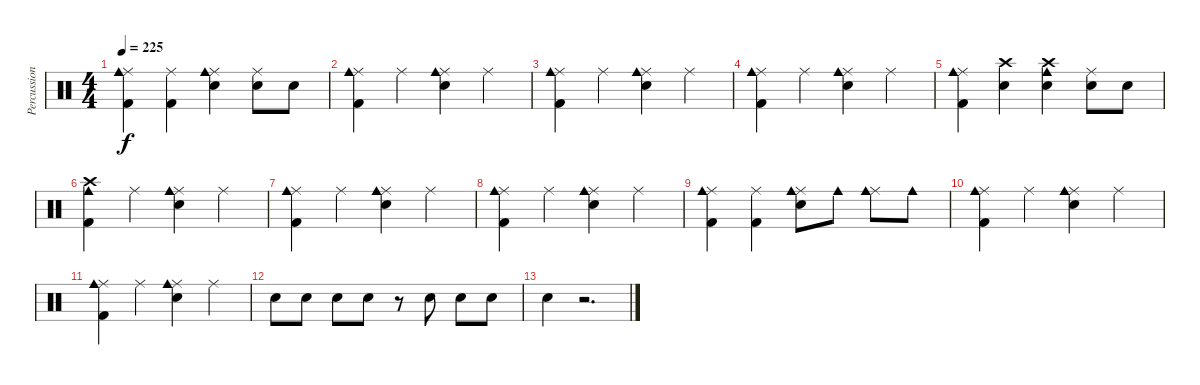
\track ("Percussion" "Percussion") {instrument percussion}
\staff {score}
\articulation defaults
\ts (4 4)
\tempo 225
\clef neutral
\ks c
("Ride (middle)" "Cowbell medium (hit)" "Kick (hit) 2").4{dy f} ("Ride (middle)" "Kick (hit) 2").4 ("Ride (middle)" "Cowbell medium (hit)" "Electric Snare (hit)").4 ("Ride (middle)" "Electric Snare (hit)").8 "Electric Snare (hit)".8 |
("Ride (middle)" "Cowbell medium (hit)" "Kick (hit) 2").4 "Ride (middle)".4 ("Ride (middle)" "Cowbell medium (hit)" "Electric Snare (hit)").4 "Ride (middle)".4 |
("Ride (middle)" "Cowbell medium (hit)" "Kick (hit) 2").4 "Ride (middle)".4 ("Ride (middle)" "Cowbell medium (hit)" "Electric Snare (hit)").4 "Ride (middle)".4 |
("Ride (middle)" "Cowbell medium (hit)" "Kick (hit) 2").4 "Ride (middle)".4 ("Ride (middle)" "Cowbell medium (hit)" "Electric Snare (hit)").4 "Ride (middle)".4 |
("Ride (middle)" "Cowbell medium (hit)" "Kick (hit) 2").4 ("Crash high (hit)" "Electric Snare (hit)").4 ("Crash high (hit)" "Cowbell medium (hit)" "Electric Snare (hit)").4 ("Ride (middle)" "Electric Snare (hit)").8 "Electric Snare (hit)".8 |
("Crash high (hit)" "Cowbell medium (hit)" "Kick (hit) 2").4 "Ride (middle)".4 ("Ride (middle)" "Cowbell medium (hit)" "Electric Snare (hit)").4 "Ride (middle)".4 |
("Ride (middle)" "Cowbell medium (hit)" "Kick (hit) 2").4 "Ride (middle)".4 ("Ride (middle)" "Cowbell medium (hit)" "Electric Snare (hit)").4 "Ride (middle)".4 |
("Ride (middle)" "Cowbell medium (hit)" "Kick (hit) 2").4 "Ride (middle)".4 ("Ride (middle)" "Cowbell medium (hit)" "Electric Snare (hit)").4 "Ride (middle)".4 |
("Ride (middle)" "Cowbell medium (hit)" "Kick (hit) 2").4 ("Ride (middle)" "Kick (hit) 2").4 ("Ride (middle)" "Cowbell medium (hit)" "Electric Snare (hit)").8 "Cowbell medium (hit)".8 ("Ride (middle)" "Cowbell medium (hit)").8 "Cowbell medium (hit)".8 |
("Ride (middle)" "Cowbell medium (hit)" "Kick (hit) 2").4 "Ride (middle)".4 ("Ride (middle)" "Cowbell medium (hit)" "Electric Snare (hit)").4 "Ride (middle)".4 |
("Ride (middle)" "Cowbell medium (hit)" "Kick (hit) 2").4 "Ride (middle)".4 ("Ride (middle)" "Cowbell medium (hit)" "Electric Snare (hit)").4 "Ride (middle)".4 |
"Electric Snare (hit)".8 "Electric Snare (hit)".8 "Electric Snare (hit)".8 "Electric Snare (hit)".8 r.8 "Electric Snare (hit)".8 "Electric Snare (hit)".8 "Electric Snare (hit)".8 |
"Electric Snare (hit)".4 r.2{d}
